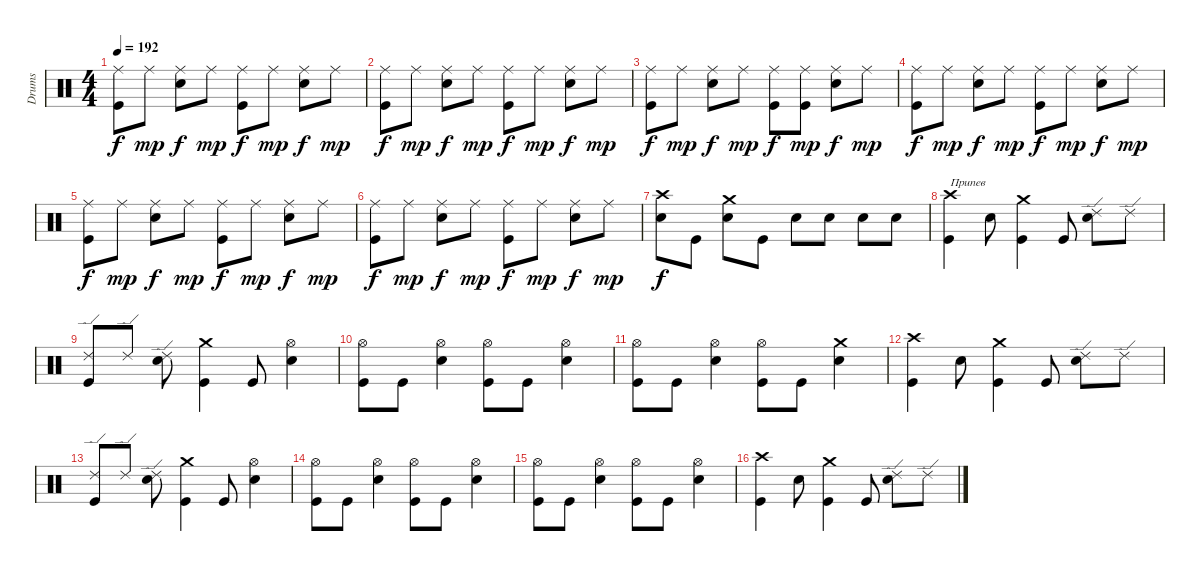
\track ("Drums" "Drums") {instrument percussion}
\staff {score}
\articulation defaults
\ts (4 4)
\tempo 192
\clef neutral
\ks c
("Ride (middle)" "Kick (hit)").8{dy f} "Ride (middle)".8{dy mp} ("Ride (middle)" "Electric Snare (hit)").8{dy f} "Ride (middle)".8{dy mp} ("Ride (middle)" "Kick (hit)").8{dy f} "Ride (middle)".8{dy mp} ("Ride (middle)" "Electric Snare (hit)").8{dy f} "Ride (middle)".8{dy mp} |
("Ride (middle)" "Kick (hit)").8{dy f} "Ride (middle)".8{dy mp} ("Ride (middle)" "Electric Snare (hit)").8{dy f} "Ride (middle)".8{dy mp} ("Ride (middle)" "Kick (hit)").8{dy f} "Ride (middle)".8{dy mp} ("Ride (middle)" "Electric Snare (hit)").8{dy f} "Ride (middle)".8{dy mp} |
("Ride (middle)" "Kick (hit)").8{dy f} "Ride (middle)".8{dy mp} ("Ride (middle)" "Electric Snare (hit)").8{dy f} "Ride (middle)".8{dy mp} ("Ride (middle)" "Kick (hit)").8{dy f} ("Ride (middle)" "Kick (hit)").8{dy mp} ("Ride (middle)" "Electric Snare (hit)").8{dy f} "Ride (middle)".8{dy mp} |
("Ride (middle)" "Kick (hit)").8{dy f} "Ride (middle)".8{dy mp} ("Ride (middle)" "Electric Snare (hit)").8{dy f} "Ride (middle)".8{dy mp} ("Ride (middle)" "Kick (hit)").8{dy f} "Ride (middle)".8{dy mp} ("Ride (middle)" "Electric Snare (hit)").8{dy f} "Ride (middle)".8{dy mp} |
("Ride (middle)" "Kick (hit)").8{dy f} "Ride (middle)".8{dy mp} ("Ride (middle)" "Electric Snare (hit)").8{dy f} "Ride (middle)".8{dy mp} ("Ride (middle)" "Kick (hit)").8{dy f} "Ride (middle)".8{dy mp} ("Ride (middle)" "Electric Snare (hit)").8{dy f} "Ride (middle)".8{dy mp} |
("Ride (middle)" "Kick (hit)").8{dy f} "Ride (middle)".8{dy mp} ("Ride (middle)" "Electric Snare (hit)").8{dy f} "Ride (middle)".8{dy mp} ("Ride (middle)" "Kick (hit)").8{dy f} "Ride (middle)".8{dy mp} ("Ride (middle)" "Electric Snare (hit)").8{dy f} "Ride (middle)".8{dy mp} |
("Crash high (hit)" "Electric Snare (hit)").8{dy f} "Kick (hit)".8 ("Crash medium (hit)" "Electric Snare (hit)").8 "Kick (hit)".8 "Electric Snare (hit)".8 "Electric Snare (hit)".8 "Electric Snare (hit)".8 "Electric Snare (hit)".8 |
("Crash high (hit)" "Kick (hit)").4{txt "Припев"} "Electric Snare (hit)".8 ("Crash medium (hit)" "Kick (hit)").4 "Kick (hit)".8 ("Ride (edge) 2" "Electric Snare (hit)").8 "Ride (edge) 2".8 |
("Ride (edge) 2" "Kick (hit)").8 "Ride (edge) 2".8 ("Ride (edge) 2" "Electric Snare (hit)").8 ("Crash medium (hit)" "Kick (hit)").4 "Kick (hit)".8 ("Hi-Hat (open)" "Electric Snare (hit)").4 |
("Hi-Hat (open)" "Kick (hit)").8 "Kick (hit)".8 ("Hi-Hat (open)" "Electric Snare (hit)").4 ("Hi-Hat (open)" "Kick (hit)").8 "Kick (hit)".8 ("Hi-Hat (open)" "Electric Snare (hit)").4 |
("Hi-Hat (open)" "Kick (hit)").8 "Kick (hit)".8 ("Hi-Hat (open)" "Electric Snare (hit)").4 ("Hi-Hat (open)" "Kick (hit)").8 "Kick (hit)".8 ("Crash medium (hit)" "Electric Snare (hit)").4 |
("Crash high (hit)" "Kick (hit)").4 "Electric Snare (hit)".8 ("Crash medium (hit)" "Kick (hit)").4 "Kick (hit)".8 ("Ride (edge) 2" "Electric Snare (hit)").8 "Ride (edge) 2".8 |
("Ride (edge) 2" "Kick (hit)").8 "Ride (edge) 2".8 ("Ride (edge) 2" "Electric Snare (hit)").8 ("Crash medium (hit)" "Kick (hit)").4 "Kick (hit)".8 ("Hi-Hat (open)" "Electric Snare (hit)").4 |
("Hi-Hat (open)" "Kick (hit)").8 "Kick (hit)".8 ("Hi-Hat (open)" "Electric Snare (hit)").4 ("Hi-Hat (open)" "Kick (hit)").8 "Kick (hit)".8 ("Hi-Hat (open)" "Electric Snare (hit)").4 |
("Hi-Hat (open)" "Kick (hit)").8 "Kick (hit)".8 ("Hi-Hat (open)" "Electric Snare (hit)").4 ("Hi-Hat (open)" "Kick (hit)").8 "Kick (hit)".8 ("Hi-Hat (open)" "Electric Snare (hit)").4 |
("Crash high (hit)" "Kick (hit)").4 "Electric Snare (hit)".8 ("Crash medium (hit)" "Kick (hit)").4 "Kick (hit)".8 ("Ride (edge) 2" "Electric Snare (hit)").8 "Ride (edge) 2".8
